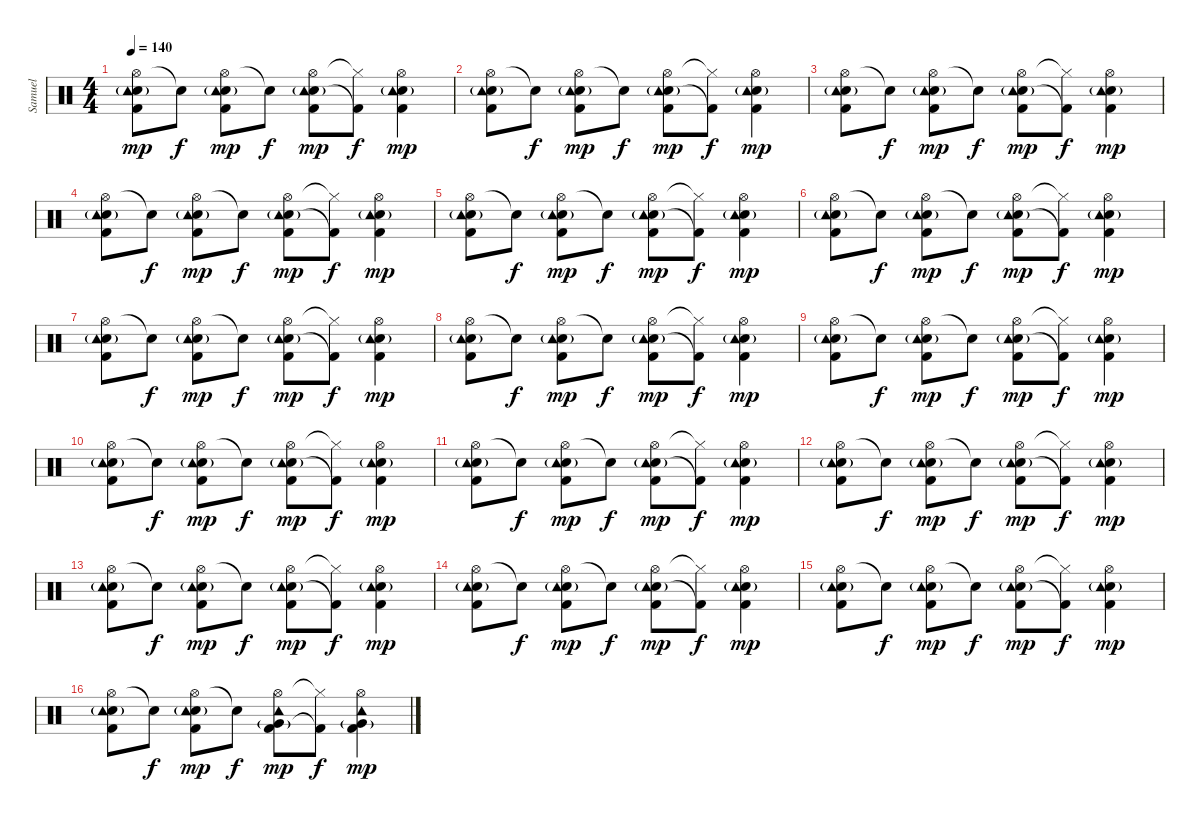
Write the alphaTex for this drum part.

\track ("Samuel" "Samuel") {instrument percussion}
\staff {score}
\articulation defaults
\ts (4 4)
\tempo 140
\clef neutral
\ks c
("Hi-Hat (open)" "Snare (hit) 2"{g} "Kick (hit) 2" "Tambourine (hit)").8{dy mp} "Snare (hit)"{t}.8{dy f} ("Hi-Hat (open)" "Snare (hit) 2"{g} "Kick (hit) 2" "Tambourine (hit)").8{dy mp} "Snare (hit)"{t}.8{dy f} ("Hi-Hat (open)" "Snare (hit) 2"{g} "Kick (hit) 2" "Tambourine (hit)").8{dy mp} ("Hi-Hat (closed)"{t} "Kick (hit) 2"{t}).8{dy f} ("Hi-Hat (open)" "Snare (hit) 2"{g} "Kick (hit) 2" "Tambourine (hit)").4{dy mp} |
("Hi-Hat (open)" "Snare (hit) 2"{g} "Kick (hit) 2" "Tambourine (hit)").8 "Snare (hit)"{t}.8{dy f} ("Hi-Hat (open)" "Snare (hit) 2"{g} "Kick (hit) 2" "Tambourine (hit)").8{dy mp} "Snare (hit)"{t}.8{dy f} ("Hi-Hat (open)" "Snare (hit) 2"{g} "Kick (hit) 2" "Tambourine (hit)").8{dy mp} ("Hi-Hat (closed)"{t} "Kick (hit) 2"{t}).8{dy f} ("Hi-Hat (open)" "Snare (hit) 2"{g} "Kick (hit) 2" "Tambourine (hit)").4{dy mp} |
("Hi-Hat (open)" "Snare (hit) 2"{g} "Kick (hit) 2" "Tambourine (hit)").8 "Snare (hit)"{t}.8{dy f} ("Hi-Hat (open)" "Snare (hit) 2"{g} "Kick (hit) 2" "Tambourine (hit)").8{dy mp} "Snare (hit)"{t}.8{dy f} ("Hi-Hat (open)" "Snare (hit) 2"{g} "Kick (hit) 2" "Tambourine (hit)").8{dy mp} ("Hi-Hat (closed)"{t} "Kick (hit) 2"{t}).8{dy f} ("Hi-Hat (open)" "Snare (hit) 2"{g} "Kick (hit) 2" "Tambourine (hit)").4{dy mp} |
("Hi-Hat (open)" "Snare (hit) 2"{g} "Kick (hit) 2" "Tambourine (hit)").8 "Snare (hit)"{t}.8{dy f} ("Hi-Hat (open)" "Snare (hit) 2"{g} "Kick (hit) 2" "Tambourine (hit)").8{dy mp} "Snare (hit)"{t}.8{dy f} ("Hi-Hat (open)" "Snare (hit) 2"{g} "Kick (hit) 2" "Tambourine (hit)").8{dy mp} ("Hi-Hat (closed)"{t} "Kick (hit) 2"{t}).8{dy f} ("Hi-Hat (open)" "Snare (hit) 2"{g} "Kick (hit) 2" "Tambourine (hit)").4{dy mp} |
("Hi-Hat (open)" "Snare (hit) 2"{g} "Kick (hit) 2" "Tambourine (hit)").8 "Snare (hit)"{t}.8{dy f} ("Hi-Hat (open)" "Snare (hit) 2"{g} "Kick (hit) 2" "Tambourine (hit)").8{dy mp} "Snare (hit)"{t}.8{dy f} ("Hi-Hat (open)" "Snare (hit) 2"{g} "Kick (hit) 2" "Tambourine (hit)").8{dy mp} ("Hi-Hat (closed)"{t} "Kick (hit) 2"{t}).8{dy f} ("Hi-Hat (open)" "Snare (hit) 2"{g} "Kick (hit) 2" "Tambourine (hit)").4{dy mp} |
("Hi-Hat (open)" "Snare (hit) 2"{g} "Kick (hit) 2" "Tambourine (hit)").8 "Snare (hit)"{t}.8{dy f} ("Hi-Hat (open)" "Snare (hit) 2"{g} "Kick (hit) 2" "Tambourine (hit)").8{dy mp} "Snare (hit)"{t}.8{dy f} ("Hi-Hat (open)" "Snare (hit) 2"{g} "Kick (hit) 2" "Tambourine (hit)").8{dy mp} ("Hi-Hat (closed)"{t} "Kick (hit) 2"{t}).8{dy f} ("Hi-Hat (open)" "Snare (hit) 2"{g} "Kick (hit) 2" "Tambourine (hit)").4{dy mp} |
("Hi-Hat (open)" "Snare (hit) 2"{g} "Kick (hit) 2" "Tambourine (hit)").8 "Snare (hit)"{t}.8{dy f} ("Hi-Hat (open)" "Snare (hit) 2"{g} "Kick (hit) 2" "Tambourine (hit)").8{dy mp} "Snare (hit)"{t}.8{dy f} ("Hi-Hat (open)" "Snare (hit) 2"{g} "Kick (hit) 2" "Tambourine (hit)").8{dy mp} ("Hi-Hat (closed)"{t} "Kick (hit) 2"{t}).8{dy f} ("Hi-Hat (open)" "Snare (hit) 2"{g} "Kick (hit) 2" "Tambourine (hit)").4{dy mp} |
("Hi-Hat (open)" "Snare (hit) 2"{g} "Kick (hit) 2" "Tambourine (hit)").8 "Snare (hit)"{t}.8{dy f} ("Hi-Hat (open)" "Snare (hit) 2"{g} "Kick (hit) 2" "Tambourine (hit)").8{dy mp} "Snare (hit)"{t}.8{dy f} ("Hi-Hat (open)" "Snare (hit) 2"{g} "Kick (hit) 2" "Tambourine (hit)").8{dy mp} ("Hi-Hat (closed)"{t} "Kick (hit) 2"{t}).8{dy f} ("Hi-Hat (open)" "Snare (hit) 2"{g} "Kick (hit) 2" "Tambourine (hit)").4{dy mp} |
("Hi-Hat (open)" "Snare (hit) 2"{g} "Kick (hit) 2" "Tambourine (hit)").8 "Snare (hit)"{t}.8{dy f} ("Hi-Hat (open)" "Snare (hit) 2"{g} "Kick (hit) 2" "Tambourine (hit)").8{dy mp} "Snare (hit)"{t}.8{dy f} ("Hi-Hat (open)" "Snare (hit) 2"{g} "Kick (hit) 2" "Tambourine (hit)").8{dy mp} ("Hi-Hat (closed)"{t} "Kick (hit) 2"{t}).8{dy f} ("Hi-Hat (open)" "Snare (hit) 2"{g} "Kick (hit) 2" "Tambourine (hit)").4{dy mp} |
("Hi-Hat (open)" "Snare (hit) 2"{g} "Kick (hit) 2" "Tambourine (hit)").8 "Snare (hit)"{t}.8{dy f} ("Hi-Hat (open)" "Snare (hit) 2"{g} "Kick (hit) 2" "Tambourine (hit)").8{dy mp} "Snare (hit)"{t}.8{dy f} ("Hi-Hat (open)" "Snare (hit) 2"{g} "Kick (hit) 2" "Tambourine (hit)").8{dy mp} ("Hi-Hat (closed)"{t} "Kick (hit) 2"{t}).8{dy f} ("Hi-Hat (open)" "Snare (hit) 2"{g} "Kick (hit) 2" "Tambourine (hit)").4{dy mp} |
("Hi-Hat (open)" "Snare (hit) 2"{g} "Kick (hit) 2" "Tambourine (hit)").8 "Snare (hit)"{t}.8{dy f} ("Hi-Hat (open)" "Snare (hit) 2"{g} "Kick (hit) 2" "Tambourine (hit)").8{dy mp} "Snare (hit)"{t}.8{dy f} ("Hi-Hat (open)" "Snare (hit) 2"{g} "Kick (hit) 2" "Tambourine (hit)").8{dy mp} ("Hi-Hat (closed)"{t} "Kick (hit) 2"{t}).8{dy f} ("Hi-Hat (open)" "Snare (hit) 2"{g} "Kick (hit) 2" "Tambourine (hit)").4{dy mp} |
("Hi-Hat (open)" "Snare (hit) 2"{g} "Kick (hit) 2" "Tambourine (hit)").8 "Snare (hit)"{t}.8{dy f} ("Hi-Hat (open)" "Snare (hit) 2"{g} "Kick (hit) 2" "Tambourine (hit)").8{dy mp} "Snare (hit)"{t}.8{dy f} ("Hi-Hat (open)" "Snare (hit) 2"{g} "Kick (hit) 2" "Tambourine (hit)").8{dy mp} ("Hi-Hat (closed)"{t} "Kick (hit) 2"{t}).8{dy f} ("Hi-Hat (open)" "Snare (hit) 2"{g} "Kick (hit) 2" "Tambourine (hit)").4{dy mp} |
("Hi-Hat (open)" "Snare (hit) 2"{g} "Kick (hit) 2" "Tambourine (hit)").8 "Snare (hit)"{t}.8{dy f} ("Hi-Hat (open)" "Snare (hit) 2"{g} "Kick (hit) 2" "Tambourine (hit)").8{dy mp} "Snare (hit)"{t}.8{dy f} ("Hi-Hat (open)" "Snare (hit) 2"{g} "Kick (hit) 2" "Tambourine (hit)").8{dy mp} ("Hi-Hat (closed)"{t} "Kick (hit) 2"{t}).8{dy f} ("Hi-Hat (open)" "Snare (hit) 2"{g} "Kick (hit) 2" "Tambourine (hit)").4{dy mp} |
("Hi-Hat (open)" "Snare (hit) 2"{g} "Kick (hit) 2" "Tambourine (hit)").8 "Snare (hit)"{t}.8{dy f} ("Hi-Hat (open)" "Snare (hit) 2"{g} "Kick (hit) 2" "Tambourine (hit)").8{dy mp} "Snare (hit)"{t}.8{dy f} ("Hi-Hat (open)" "Snare (hit) 2"{g} "Kick (hit) 2" "Tambourine (hit)").8{dy mp} ("Hi-Hat (closed)"{t} "Kick (hit) 2"{t}).8{dy f} ("Hi-Hat (open)" "Snare (hit) 2"{g} "Kick (hit) 2" "Tambourine (hit)").4{dy mp} |
("Hi-Hat (open)" "Snare (hit) 2"{g} "Kick (hit) 2" "Tambourine (hit)").8 "Snare (hit)"{t}.8{dy f} ("Hi-Hat (open)" "Snare (hit) 2"{g} "Kick (hit) 2" "Tambourine (hit)").8{dy mp} "Snare (hit)"{t}.8{dy f} ("Hi-Hat (open)" "Snare (hit) 2"{g} "Kick (hit) 2" "Tambourine (hit)").8{dy mp} ("Hi-Hat (closed)"{t} "Kick (hit) 2"{t}).8{dy f} ("Hi-Hat (open)" "Snare (hit) 2"{g} "Kick (hit) 2" "Tambourine (hit)").4{dy mp} |
("Hi-Hat (open)" "Snare (hit) 2"{g} "Kick (hit) 2" "Tambourine (hit)").8 "Snare (hit)"{t}.8{dy f} ("Hi-Hat (open)" "Snare (hit) 2"{g} "Kick (hit) 2" "Tambourine (hit)").8{dy mp} "Snare (hit)"{t}.8{dy f} ("Hi-Hat (open)" "Very Low Tom (hit)"{g} "Kick (hit) 2" "Tambourine (hit)").8{dy mp} ("Hi-Hat (closed)"{t} "Kick (hit) 2"{t}).8{dy f} ("Hi-Hat (open)" "Very Low Tom (hit)"{g} "Kick (hit) 2" "Tambourine (hit)").4{dy mp}
